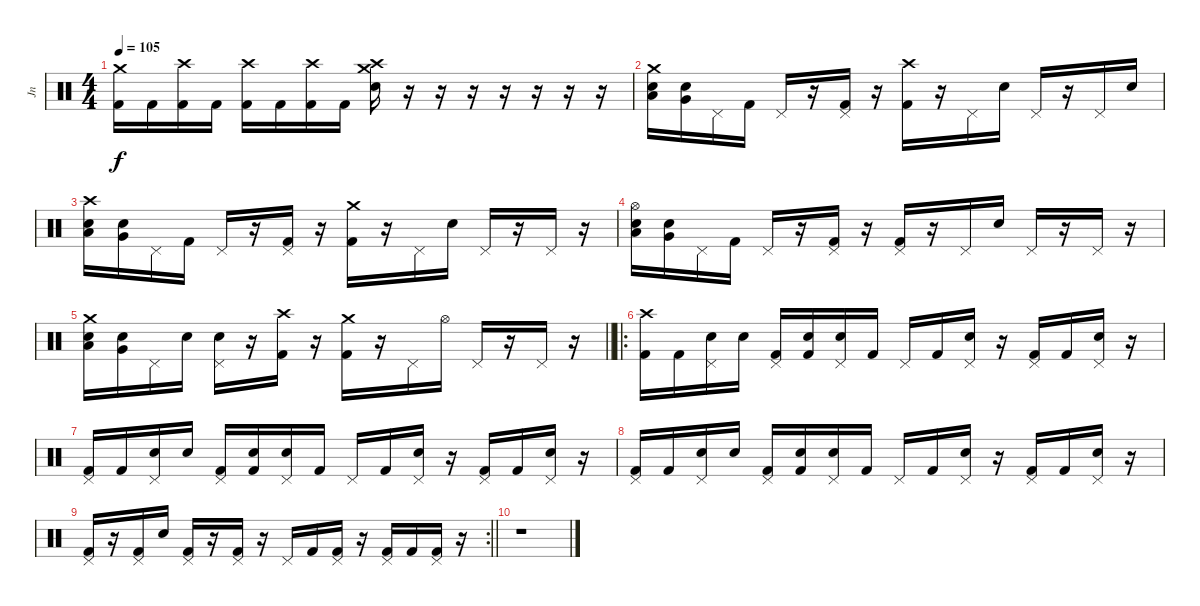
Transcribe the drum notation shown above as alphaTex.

\track ("Jn" "Jn") {instrument percussion}
\staff {score}
\articulation defaults
\ts (4 4)
\tempo 105
\clef neutral
\ks c
("Crash medium (hit)" "Kick (hit) 2").16{dy f} "Kick (hit) 2".16 ("Crash high (hit)" "Kick (hit) 2").16 "Kick (hit) 2".16 ("Crash high (hit)" "Kick (hit) 2").16 "Kick (hit) 2".16 ("Crash high (hit)" "Kick (hit) 2").16 "Kick (hit) 2".16 ("Crash high (hit)" "Crash medium (hit)" "Electric Snare (hit)").16 r.16 r.16 r.16 r.16 r.16 r.16 r.16 |
("Crash medium (hit)" "Low Tom (hit)" "Electric Snare (hit)").16 ("Very Low Tom (hit)" "Electric Snare (hit)").16 "Pedal Hi-Hat (hit)".16 "Kick (hit) 2".16 "Pedal Hi-Hat (hit)".16 r.16 ("Pedal Hi-Hat (hit)" "Kick (hit) 2").16 r.16 ("Crash high (hit)" "Kick (hit) 2").16 r.16 "Pedal Hi-Hat (hit)".16 "Electric Snare (hit)".16 "Pedal Hi-Hat (hit)".16 r.16 "Pedal Hi-Hat (hit)".16 "Electric Snare (hit)".16 |
("Crash high (hit)" "Low Tom (hit)" "Electric Snare (hit)").16 ("Very Low Tom (hit)" "Electric Snare (hit)").16 "Pedal Hi-Hat (hit)".16 "Kick (hit) 2".16 "Pedal Hi-Hat (hit)".16 r.16 ("Pedal Hi-Hat (hit)" "Kick (hit) 2").16 r.16 ("Crash medium (hit)" "Kick (hit) 2").16 r.16 "Pedal Hi-Hat (hit)".16 "Electric Snare (hit)".16 "Pedal Hi-Hat (hit)".16 r.16 "Pedal Hi-Hat (hit)".16 r.16 |
("Hi-Hat (open)" "Low Tom (hit)" "Electric Snare (hit)").16 ("Very Low Tom (hit)" "Electric Snare (hit)").16 "Pedal Hi-Hat (hit)".16 "Kick (hit) 2".16 "Pedal Hi-Hat (hit)".16 r.16 ("Pedal Hi-Hat (hit)" "Kick (hit) 2").16 r.16 ("Pedal Hi-Hat (hit)" "Kick (hit) 2").16 r.16 "Pedal Hi-Hat (hit)".16 "Electric Snare (hit)".16 "Pedal Hi-Hat (hit)".16 r.16 "Pedal Hi-Hat (hit)".16 r.16 |
\barLineRight lightlight
("Crash medium (hit)" "Low Tom (hit)" "Electric Snare (hit)").16 ("Very Low Tom (hit)" "Electric Snare (hit)").16 "Pedal Hi-Hat (hit)".16 "Electric Snare (hit)".16 ("Pedal Hi-Hat (hit)" "Electric Snare (hit)").16 r.16 ("Crash high (hit)" "Kick (hit) 2").16 r.16 ("Crash medium (hit)" "Kick (hit) 2").16 r.16 "Pedal Hi-Hat (hit)".16 "Hi-Hat (open)".16 "Pedal Hi-Hat (hit)".16 r.16 "Pedal Hi-Hat (hit)".16 r.16 |
\ro
("Crash high (hit)" "Kick (hit) 2").16 "Kick (hit) 2".16 ("Pedal Hi-Hat (hit)" "Electric Snare (hit)").16 "Snare (hit)".16 ("Pedal Hi-Hat (hit)" "Kick (hit) 2").16 ("Snare (hit)" "Kick (hit) 2").16 ("Pedal Hi-Hat (hit)" "Electric Snare (hit)").16 "Kick (hit) 2".16 "Pedal Hi-Hat (hit)".16 "Kick (hit) 2".16 ("Pedal Hi-Hat (hit)" "Electric Snare (hit)").16 r.16 ("Pedal Hi-Hat (hit)" "Kick (hit) 2").16 "Kick (hit) 2".16 ("Pedal Hi-Hat (hit)" "Electric Snare (hit)").16 r.16 |
("Pedal Hi-Hat (hit)" "Kick (hit) 2").16 "Kick (hit) 2".16 ("Pedal Hi-Hat (hit)" "Electric Snare (hit)").16 "Snare (hit)".16 ("Pedal Hi-Hat (hit)" "Kick (hit) 2").16 ("Snare (hit)" "Kick (hit) 2").16 ("Pedal Hi-Hat (hit)" "Electric Snare (hit)").16 "Kick (hit) 2".16 "Pedal Hi-Hat (hit)".16 "Kick (hit) 2".16 ("Pedal Hi-Hat (hit)" "Electric Snare (hit)").16 r.16 ("Pedal Hi-Hat (hit)" "Kick (hit) 2").16 "Kick (hit) 2".16 ("Pedal Hi-Hat (hit)" "Electric Snare (hit)").16 r.16 |
("Pedal Hi-Hat (hit)" "Kick (hit) 2").16 "Kick (hit) 2".16 ("Pedal Hi-Hat (hit)" "Electric Snare (hit)").16 "Snare (hit)".16 ("Pedal Hi-Hat (hit)" "Kick (hit) 2").16 ("Snare (hit)" "Kick (hit) 2").16 ("Pedal Hi-Hat (hit)" "Electric Snare (hit)").16 "Kick (hit) 2".16 "Pedal Hi-Hat (hit)".16 "Kick (hit) 2".16 ("Pedal Hi-Hat (hit)" "Electric Snare (hit)").16 r.16 ("Pedal Hi-Hat (hit)" "Kick (hit) 2").16 "Kick (hit) 2".16 ("Pedal Hi-Hat (hit)" "Electric Snare (hit)").16 r.16 |
\rc 2
\barLineRight lightlight
("Pedal Hi-Hat (hit)" "Kick (hit) 2").16 r.16 ("Pedal Hi-Hat (hit)" "Kick (hit) 2").16 "Snare (hit)".16 ("Pedal Hi-Hat (hit)" "Kick (hit) 2").16 r.16 ("Pedal Hi-Hat (hit)" "Kick (hit) 2").16 r.16 "Pedal Hi-Hat (hit)".16 "Kick (hit) 2".16 ("Pedal Hi-Hat (hit)" "Kick (hit) 2").16 r.16 ("Pedal Hi-Hat (hit)" "Kick (hit) 2").16 "Kick (hit) 2".16 ("Pedal Hi-Hat (hit)" "Kick (hit) 2").16 r.16 |
r.1
